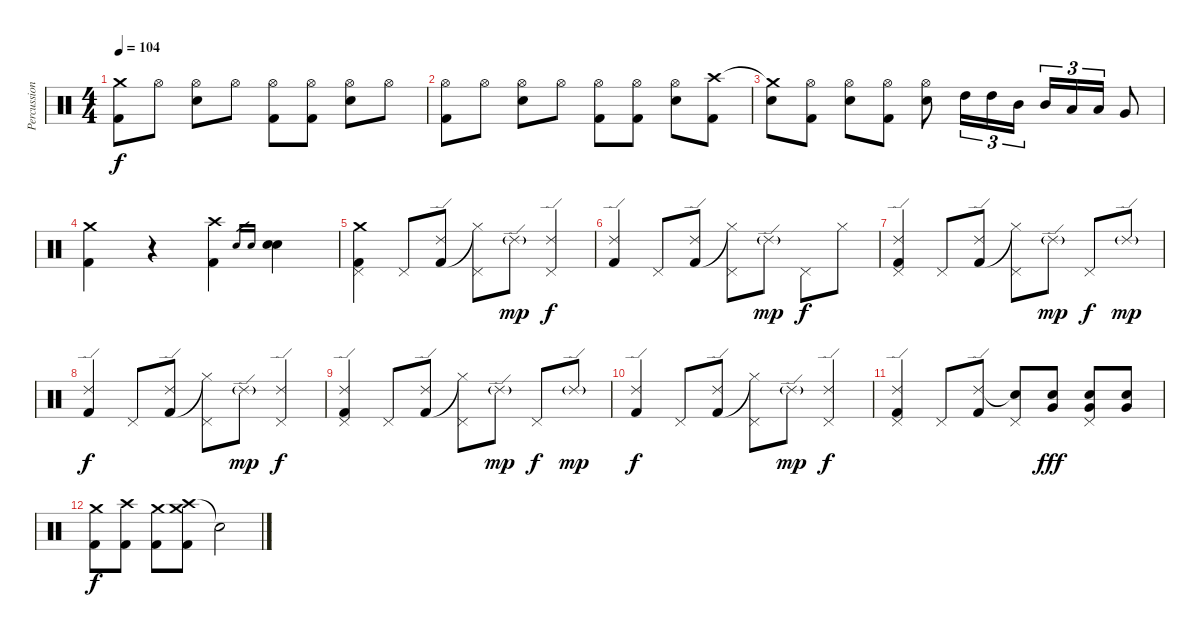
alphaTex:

\track ("Percussion" "Percussion") {instrument percussion}
\staff {score}
\articulation defaults
\ts (4 4)
\tempo 104
\clef neutral
\ks c
("Crash medium (hit)" "Kick (hit) 2").8{dy f} "Hi-Hat (open)".8 ("Hi-Hat (open)" "Snare (hit) 2").8 "Hi-Hat (open)".8 ("Hi-Hat (open)" "Kick (hit) 2").8 ("Hi-Hat (open)" "Kick (hit) 2").8 ("Hi-Hat (open)" "Snare (hit) 2").8 "Hi-Hat (open)".8 |
("Hi-Hat (open)" "Kick (hit) 2").8 "Hi-Hat (open)".8 ("Hi-Hat (open)" "Snare (hit) 2").8 "Hi-Hat (open)".8 ("Hi-Hat (open)" "Kick (hit) 2").8 ("Hi-Hat (open)" "Kick (hit) 2").8 ("Hi-Hat (open)" "Snare (hit) 2").8 ("Crash high (hit)" "Kick (hit) 2").8 |
("Crash medium (hit)"{t} "Snare (hit) 2").8 ("Hi-Hat (open)" "Kick (hit) 2").8 ("Hi-Hat (open)" "Snare (hit) 2").8 ("Hi-Hat (open)" "Kick (hit) 2").8 ("Hi-Hat (open)" "Snare (hit) 2").8 "High Tom (hit)".16{tu (3 2)} "High Tom (hit)".16{tu (3 2)} "Mid Tom (hit)".16{tu (3 2)} "Mid Tom (hit)".16{tu (3 2)} "Low Tom (hit)".16{tu (3 2)} "Low Tom (hit)".16{tu (3 2)} "Very Low Tom (hit)".8 |
("Crash medium (hit)" "Kick (hit) 2").4 r.4 ("Crash high (hit)" "Kick (hit) 2").4 "Electric Snare (hit)".16{gr} "Snare (hit) 2".16{gr} ("Electric Snare (hit)" "Snare (hit) 2").4 |
("Crash medium (hit)" "Pedal Hi-Hat (hit)" "Kick (hit) 2").4 "Pedal Hi-Hat (hit)".8 ("Ride (edge) 2" "Kick (hit) 2").8 ("Pedal Hi-Hat (hit)" "Hi-Hat (closed)"{t}).8 "Ride (edge) 2"{g}.8{dy mp} ("Pedal Hi-Hat (hit)" "Ride (edge) 2").4{dy f} |
("Ride (edge) 2" "Kick (hit) 2").4 "Pedal Hi-Hat (hit)".8 ("Ride (edge) 2" "Kick (hit) 2").8 ("Pedal Hi-Hat (hit)" "Hi-Hat (closed)"{t}).8 "Ride (edge) 2"{g}.8{dy mp} "Pedal Hi-Hat (hit)".8{dy f} "Hi-Hat (closed)".8 |
("Ride (edge) 2" "Pedal Hi-Hat (hit)" "Kick (hit) 2").4 "Pedal Hi-Hat (hit)".8 ("Ride (edge) 2" "Kick (hit) 2").8 ("Pedal Hi-Hat (hit)" "Hi-Hat (closed)"{t}).8 "Ride (edge) 2"{g}.8{dy mp} "Pedal Hi-Hat (hit)".8{dy f} "Ride (edge) 2"{g}.8{dy mp} |
("Ride (edge) 2" "Kick (hit) 2").4{dy f} "Pedal Hi-Hat (hit)".8 ("Ride (edge) 2" "Kick (hit) 2").8 ("Pedal Hi-Hat (hit)" "Hi-Hat (closed)"{t}).8 "Ride (edge) 2"{g}.8{dy mp} ("Pedal Hi-Hat (hit)" "Ride (edge) 2").4{dy f} |
("Ride (edge) 2" "Pedal Hi-Hat (hit)" "Kick (hit) 2").4 "Pedal Hi-Hat (hit)".8 ("Ride (edge) 2" "Kick (hit) 2").8 ("Pedal Hi-Hat (hit)" "Hi-Hat (closed)"{t}).8 "Ride (edge) 2"{g}.8{dy mp} "Pedal Hi-Hat (hit)".8{dy f} "Ride (edge) 2"{g}.8{dy mp} |
("Ride (edge) 2" "Kick (hit) 2").4{dy f} "Pedal Hi-Hat (hit)".8 ("Ride (edge) 2" "Kick (hit) 2").8 ("Pedal Hi-Hat (hit)" "Hi-Hat (closed)"{t}).8 "Ride (edge) 2"{g}.8{dy mp} ("Pedal Hi-Hat (hit)" "Ride (edge) 2").4{dy f} |
("Ride (edge) 2" "Kick (hit) 2" "Pedal Hi-Hat (hit)").4 "Pedal Hi-Hat (hit)".8 ("Ride (edge) 2" "Kick (hit) 2").8 ("Snare (hit)"{t} "Pedal Hi-Hat (hit)").8 ("Snare (hit) 2" "Very Low Tom (hit)").8{dy fff} ("Snare (hit) 2" "Very Low Tom (hit)" "Pedal Hi-Hat (hit)").8 ("Snare (hit) 2" "Very Low Tom (hit)").8 |
("Crash medium (hit)" "Kick (hit) 2").8{dy f} ("Crash high (hit)" "Kick (hit) 2").8 ("Crash medium (hit)" "Kick (hit) 2").8 ("Crash high (hit)" "Crash medium (hit)" "Kick (hit) 2").8 "Snare (hit)"{t}.2
